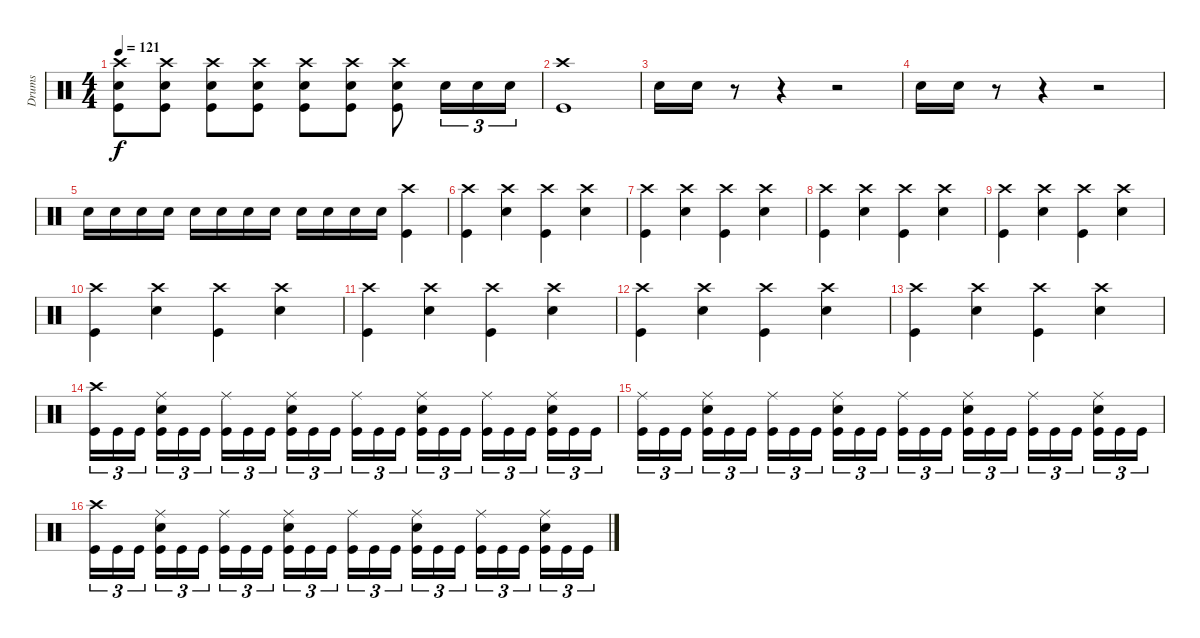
\track ("Drums" "Drums") {instrument percussion}
\staff {score}
\articulation defaults
\ts (4 4)
\tempo 121
\clef neutral
\ks c
("Crash high (hit)" "Electric Snare (hit)" "Kick (hit)").8{dy f} ("Crash high (hit)" "Electric Snare (hit)" "Kick (hit)").8 ("Crash high (hit)" "Electric Snare (hit)" "Kick (hit)").8 ("Crash high (hit)" "Electric Snare (hit)" "Kick (hit)").8 ("Crash high (hit)" "Electric Snare (hit)" "Kick (hit)").8 ("Crash high (hit)" "Electric Snare (hit)" "Kick (hit)").8 ("Crash high (hit)" "Electric Snare (hit)" "Kick (hit)").8 "Electric Snare (hit)".16{tu (3 2)} "Electric Snare (hit)".16{tu (3 2)} "Electric Snare (hit)".16{tu (3 2)} |
("Crash high (hit)" "Kick (hit)").1 |
"Electric Snare (hit)".16 "Electric Snare (hit)".16 r.8 r.4 r.2 |
"Electric Snare (hit)".16 "Electric Snare (hit)".16 r.8 r.4 r.2 |
"Electric Snare (hit)".16 "Electric Snare (hit)".16 "Electric Snare (hit)".16 "Electric Snare (hit)".16 "Electric Snare (hit)".16 "Electric Snare (hit)".16 "Electric Snare (hit)".16 "Electric Snare (hit)".16 "Electric Snare (hit)".16 "Electric Snare (hit)".16 "Electric Snare (hit)".16 "Electric Snare (hit)".16 ("Crash high (hit)" "Kick (hit)").4 |
("Crash high (hit)" "Kick (hit)").4 ("Crash high (hit)" "Electric Snare (hit)").4 ("Crash high (hit)" "Kick (hit)").4 ("Crash high (hit)" "Electric Snare (hit)").4 |
("Crash high (hit)" "Kick (hit)").4 ("Crash high (hit)" "Electric Snare (hit)").4 ("Crash high (hit)" "Kick (hit)").4 ("Crash high (hit)" "Electric Snare (hit)").4 |
("Crash high (hit)" "Kick (hit)").4 ("Crash high (hit)" "Electric Snare (hit)").4 ("Crash high (hit)" "Kick (hit)").4 ("Crash high (hit)" "Electric Snare (hit)").4 |
("Crash high (hit)" "Kick (hit)").4 ("Crash high (hit)" "Electric Snare (hit)").4 ("Crash high (hit)" "Kick (hit)").4 ("Crash high (hit)" "Electric Snare (hit)").4 |
("Crash high (hit)" "Kick (hit)").4 ("Crash high (hit)" "Electric Snare (hit)").4 ("Crash high (hit)" "Kick (hit)").4 ("Crash high (hit)" "Electric Snare (hit)").4 |
("Crash high (hit)" "Kick (hit)").4 ("Crash high (hit)" "Electric Snare (hit)").4 ("Crash high (hit)" "Kick (hit)").4 ("Crash high (hit)" "Electric Snare (hit)").4 |
("Crash high (hit)" "Kick (hit)").4 ("Crash high (hit)" "Electric Snare (hit)").4 ("Crash high (hit)" "Kick (hit)").4 ("Crash high (hit)" "Electric Snare (hit)").4 |
("Crash high (hit)" "Kick (hit)").4 ("Crash high (hit)" "Electric Snare (hit)").4 ("Crash high (hit)" "Kick (hit)").4 ("Crash high (hit)" "Electric Snare (hit)").4 |
("Crash high (hit)" "Kick (hit)").16{tu (3 2)} "Kick (hit)".16{tu (3 2)} "Kick (hit)".16{tu (3 2)} ("Ride (middle)" "Electric Snare (hit)" "Kick (hit)").16{tu (3 2)} "Kick (hit)".16{tu (3 2)} "Kick (hit)".16{tu (3 2)} ("Ride (middle)" "Kick (hit)").16{tu (3 2)} "Kick (hit)".16{tu (3 2)} "Kick (hit)".16{tu (3 2)} ("Ride (middle)" "Electric Snare (hit)" "Kick (hit)").16{tu (3 2)} "Kick (hit)".16{tu (3 2)} "Kick (hit)".16{tu (3 2)} ("Ride (middle)" "Kick (hit)").16{tu (3 2)} "Kick (hit)".16{tu (3 2)} "Kick (hit)".16{tu (3 2)} ("Ride (middle)" "Electric Snare (hit)" "Kick (hit)").16{tu (3 2)} "Kick (hit)".16{tu (3 2)} "Kick (hit)".16{tu (3 2)} ("Ride (middle)" "Kick (hit)").16{tu (3 2)} "Kick (hit)".16{tu (3 2)} "Kick (hit)".16{tu (3 2)} ("Ride (middle)" "Electric Snare (hit)" "Kick (hit)").16{tu (3 2)} "Kick (hit)".16{tu (3 2)} "Kick (hit)".16{tu (3 2)} |
("Ride (middle)" "Kick (hit)").16{tu (3 2)} "Kick (hit)".16{tu (3 2)} "Kick (hit)".16{tu (3 2)} ("Ride (middle)" "Electric Snare (hit)" "Kick (hit)").16{tu (3 2)} "Kick (hit)".16{tu (3 2)} "Kick (hit)".16{tu (3 2)} ("Ride (middle)" "Kick (hit)").16{tu (3 2)} "Kick (hit)".16{tu (3 2)} "Kick (hit)".16{tu (3 2)} ("Ride (middle)" "Electric Snare (hit)" "Kick (hit)").16{tu (3 2)} "Kick (hit)".16{tu (3 2)} "Kick (hit)".16{tu (3 2)} ("Ride (middle)" "Kick (hit)").16{tu (3 2)} "Kick (hit)".16{tu (3 2)} "Kick (hit)".16{tu (3 2)} ("Ride (middle)" "Electric Snare (hit)" "Kick (hit)").16{tu (3 2)} "Kick (hit)".16{tu (3 2)} "Kick (hit)".16{tu (3 2)} ("Ride (middle)" "Kick (hit)").16{tu (3 2)} "Kick (hit)".16{tu (3 2)} "Kick (hit)".16{tu (3 2)} ("Ride (middle)" "Electric Snare (hit)" "Kick (hit)").16{tu (3 2)} "Kick (hit)".16{tu (3 2)} "Kick (hit)".16{tu (3 2)} |
("Crash high (hit)" "Kick (hit)").16{tu (3 2)} "Kick (hit)".16{tu (3 2)} "Kick (hit)".16{tu (3 2)} ("Ride (middle)" "Electric Snare (hit)" "Kick (hit)").16{tu (3 2)} "Kick (hit)".16{tu (3 2)} "Kick (hit)".16{tu (3 2)} ("Ride (middle)" "Kick (hit)").16{tu (3 2)} "Kick (hit)".16{tu (3 2)} "Kick (hit)".16{tu (3 2)} ("Ride (middle)" "Electric Snare (hit)" "Kick (hit)").16{tu (3 2)} "Kick (hit)".16{tu (3 2)} "Kick (hit)".16{tu (3 2)} ("Ride (middle)" "Kick (hit)").16{tu (3 2)} "Kick (hit)".16{tu (3 2)} "Kick (hit)".16{tu (3 2)} ("Ride (middle)" "Electric Snare (hit)" "Kick (hit)").16{tu (3 2)} "Kick (hit)".16{tu (3 2)} "Kick (hit)".16{tu (3 2)} ("Ride (middle)" "Kick (hit)").16{tu (3 2)} "Kick (hit)".16{tu (3 2)} "Kick (hit)".16{tu (3 2)} ("Ride (middle)" "Electric Snare (hit)" "Kick (hit)").16{tu (3 2)} "Kick (hit)".16{tu (3 2)} "Kick (hit)".16{tu (3 2)}
